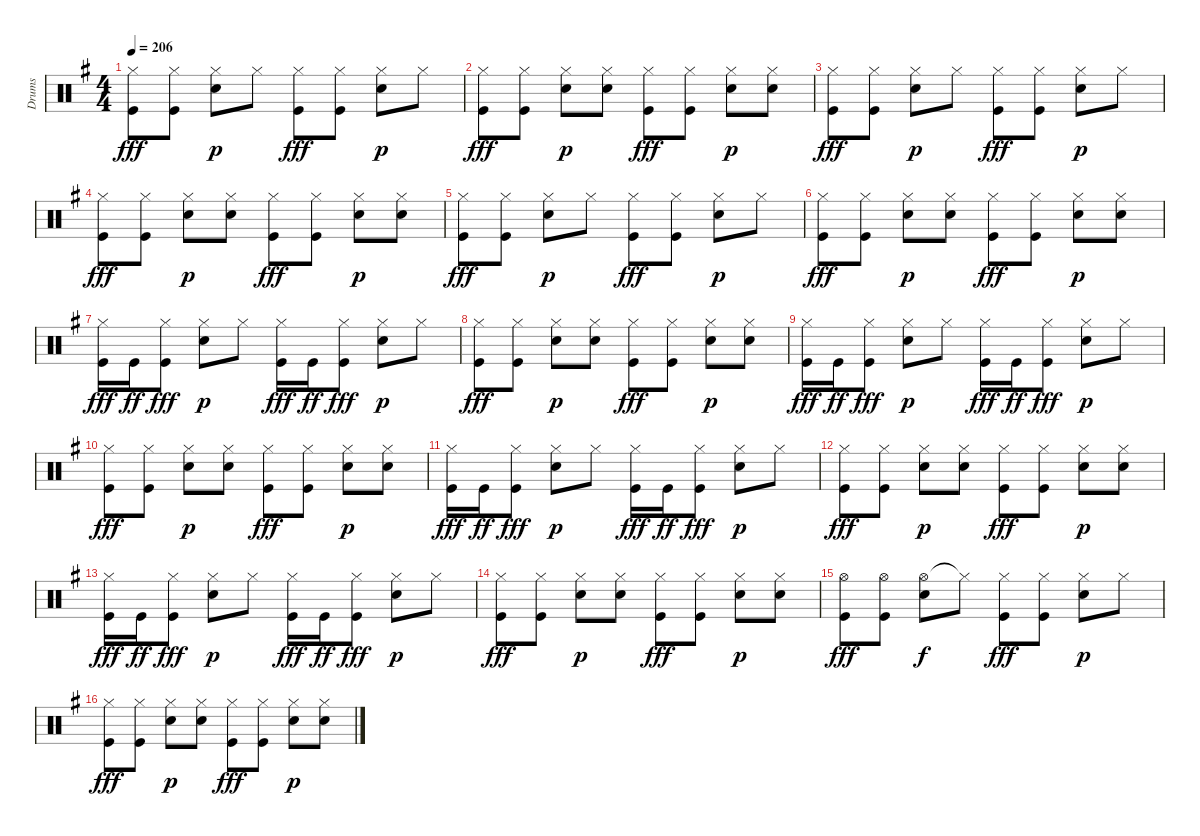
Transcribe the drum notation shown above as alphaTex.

\track ("Drums" "Drums") {instrument percussion}
\staff {score}
\articulation defaults
\ts (4 4)
\tempo 206
\clef neutral
\ks g
("Hi-Hat (closed)" "Kick (hit)").8{dy fff} ("Hi-Hat (closed)" "Kick (hit)").8 ("Hi-Hat (closed)" "Snare (hit) 2").8{dy p} "Hi-Hat (closed)".8 ("Hi-Hat (closed)" "Kick (hit)").8{dy fff} ("Hi-Hat (closed)" "Kick (hit)").8 ("Hi-Hat (closed)" "Snare (hit) 2").8{dy p} "Hi-Hat (closed)".8 |
("Hi-Hat (closed)" "Kick (hit)").8{dy fff} ("Hi-Hat (closed)" "Kick (hit)").8 ("Hi-Hat (closed)" "Snare (hit) 2").8{dy p} ("Hi-Hat (closed)" "Snare (hit) 2").8 ("Hi-Hat (closed)" "Kick (hit)").8{dy fff} ("Hi-Hat (closed)" "Kick (hit)").8 ("Hi-Hat (closed)" "Snare (hit) 2").8{dy p} ("Hi-Hat (closed)" "Snare (hit) 2").8 |
("Hi-Hat (closed)" "Kick (hit)").8{dy fff} ("Hi-Hat (closed)" "Kick (hit)").8 ("Hi-Hat (closed)" "Snare (hit) 2").8{dy p} "Hi-Hat (closed)".8 ("Hi-Hat (closed)" "Kick (hit)").8{dy fff} ("Hi-Hat (closed)" "Kick (hit)").8 ("Hi-Hat (closed)" "Snare (hit) 2").8{dy p} "Hi-Hat (closed)".8 |
("Hi-Hat (closed)" "Kick (hit)").8{dy fff} ("Hi-Hat (closed)" "Kick (hit)").8 ("Hi-Hat (closed)" "Snare (hit) 2").8{dy p} ("Hi-Hat (closed)" "Snare (hit) 2").8 ("Hi-Hat (closed)" "Kick (hit)").8{dy fff} ("Hi-Hat (closed)" "Kick (hit)").8 ("Hi-Hat (closed)" "Snare (hit) 2").8{dy p} ("Hi-Hat (closed)" "Snare (hit) 2").8 |
("Hi-Hat (closed)" "Kick (hit)").8{dy fff} ("Hi-Hat (closed)" "Kick (hit)").8 ("Hi-Hat (closed)" "Snare (hit) 2").8{dy p} "Hi-Hat (closed)".8 ("Hi-Hat (closed)" "Kick (hit)").8{dy fff} ("Hi-Hat (closed)" "Kick (hit)").8 ("Hi-Hat (closed)" "Snare (hit) 2").8{dy p} "Hi-Hat (closed)".8 |
("Hi-Hat (closed)" "Kick (hit)").8{dy fff} ("Hi-Hat (closed)" "Kick (hit)").8 ("Hi-Hat (closed)" "Snare (hit) 2").8{dy p} ("Hi-Hat (closed)" "Snare (hit) 2").8 ("Hi-Hat (closed)" "Kick (hit)").8{dy fff} ("Hi-Hat (closed)" "Kick (hit)").8 ("Hi-Hat (closed)" "Snare (hit) 2").8{dy p} ("Hi-Hat (closed)" "Snare (hit) 2").8 |
("Hi-Hat (closed)" "Kick (hit)").16{dy fff} "Kick (hit)".16{dy ff} ("Hi-Hat (closed)" "Kick (hit)").8{dy fff} ("Hi-Hat (closed)" "Snare (hit) 2").8{dy p} "Hi-Hat (closed)".8 ("Hi-Hat (closed)" "Kick (hit)").16{dy fff} "Kick (hit)".16{dy ff} ("Hi-Hat (closed)" "Kick (hit)").8{dy fff} ("Hi-Hat (closed)" "Snare (hit) 2").8{dy p} "Hi-Hat (closed)".8 |
("Hi-Hat (closed)" "Kick (hit)").8{dy fff} ("Hi-Hat (closed)" "Kick (hit)").8 ("Hi-Hat (closed)" "Snare (hit) 2").8{dy p} ("Hi-Hat (closed)" "Snare (hit) 2").8 ("Hi-Hat (closed)" "Kick (hit)").8{dy fff} ("Hi-Hat (closed)" "Kick (hit)").8 ("Hi-Hat (closed)" "Snare (hit) 2").8{dy p} ("Hi-Hat (closed)" "Snare (hit) 2").8 |
("Hi-Hat (closed)" "Kick (hit)").16{dy fff} "Kick (hit)".16{dy ff} ("Hi-Hat (closed)" "Kick (hit)").8{dy fff} ("Hi-Hat (closed)" "Snare (hit) 2").8{dy p} "Hi-Hat (closed)".8 ("Hi-Hat (closed)" "Kick (hit)").16{dy fff} "Kick (hit)".16{dy ff} ("Hi-Hat (closed)" "Kick (hit)").8{dy fff} ("Hi-Hat (closed)" "Snare (hit) 2").8{dy p} "Hi-Hat (closed)".8 |
("Hi-Hat (closed)" "Kick (hit)").8{dy fff} ("Hi-Hat (closed)" "Kick (hit)").8 ("Hi-Hat (closed)" "Snare (hit) 2").8{dy p} ("Hi-Hat (closed)" "Snare (hit) 2").8 ("Hi-Hat (closed)" "Kick (hit)").8{dy fff} ("Hi-Hat (closed)" "Kick (hit)").8 ("Hi-Hat (closed)" "Snare (hit) 2").8{dy p} ("Hi-Hat (closed)" "Snare (hit) 2").8 |
("Hi-Hat (closed)" "Kick (hit)").16{dy fff} "Kick (hit)".16{dy ff} ("Hi-Hat (closed)" "Kick (hit)").8{dy fff} ("Hi-Hat (closed)" "Snare (hit) 2").8{dy p} "Hi-Hat (closed)".8 ("Hi-Hat (closed)" "Kick (hit)").16{dy fff} "Kick (hit)".16{dy ff} ("Hi-Hat (closed)" "Kick (hit)").8{dy fff} ("Hi-Hat (closed)" "Snare (hit) 2").8{dy p} "Hi-Hat (closed)".8 |
("Hi-Hat (closed)" "Kick (hit)").8{dy fff} ("Hi-Hat (closed)" "Kick (hit)").8 ("Hi-Hat (closed)" "Snare (hit) 2").8{dy p} ("Hi-Hat (closed)" "Snare (hit) 2").8 ("Hi-Hat (closed)" "Kick (hit)").8{dy fff} ("Hi-Hat (closed)" "Kick (hit)").8 ("Hi-Hat (closed)" "Snare (hit) 2").8{dy p} ("Hi-Hat (closed)" "Snare (hit) 2").8 |
("Hi-Hat (closed)" "Kick (hit)").16{dy fff} "Kick (hit)".16{dy ff} ("Hi-Hat (closed)" "Kick (hit)").8{dy fff} ("Hi-Hat (closed)" "Snare (hit) 2").8{dy p} "Hi-Hat (closed)".8 ("Hi-Hat (closed)" "Kick (hit)").16{dy fff} "Kick (hit)".16{dy ff} ("Hi-Hat (closed)" "Kick (hit)").8{dy fff} ("Hi-Hat (closed)" "Snare (hit) 2").8{dy p} "Hi-Hat (closed)".8 |
("Hi-Hat (closed)" "Kick (hit)").8{dy fff} ("Hi-Hat (closed)" "Kick (hit)").8 ("Hi-Hat (closed)" "Snare (hit) 2").8{dy p} ("Hi-Hat (closed)" "Snare (hit) 2").8 ("Hi-Hat (closed)" "Kick (hit)").8{dy fff} ("Hi-Hat (closed)" "Kick (hit)").8 ("Hi-Hat (closed)" "Snare (hit) 2").8{dy p} ("Hi-Hat (closed)" "Snare (hit) 2").8 |
("Hi-Hat (open)" "Kick (hit)").8{dy fff} ("Hi-Hat (open)" "Kick (hit)").8 ("Hi-Hat (open)" "Snare (hit) 2").8{dy f} "Hi-Hat (closed)"{t}.8 ("Hi-Hat (closed)" "Kick (hit)").8{dy fff} ("Hi-Hat (closed)" "Kick (hit)").8 ("Hi-Hat (closed)" "Snare (hit) 2").8{dy p} "Hi-Hat (closed)".8 |
("Hi-Hat (closed)" "Kick (hit)").8{dy fff} ("Hi-Hat (closed)" "Kick (hit)").8 ("Hi-Hat (closed)" "Snare (hit) 2").8{dy p} ("Hi-Hat (closed)" "Snare (hit) 2").8 ("Hi-Hat (closed)" "Kick (hit)").8{dy fff} ("Hi-Hat (closed)" "Kick (hit)").8 ("Hi-Hat (closed)" "Snare (hit) 2").8{dy p} ("Hi-Hat (closed)" "Snare (hit) 2").8
